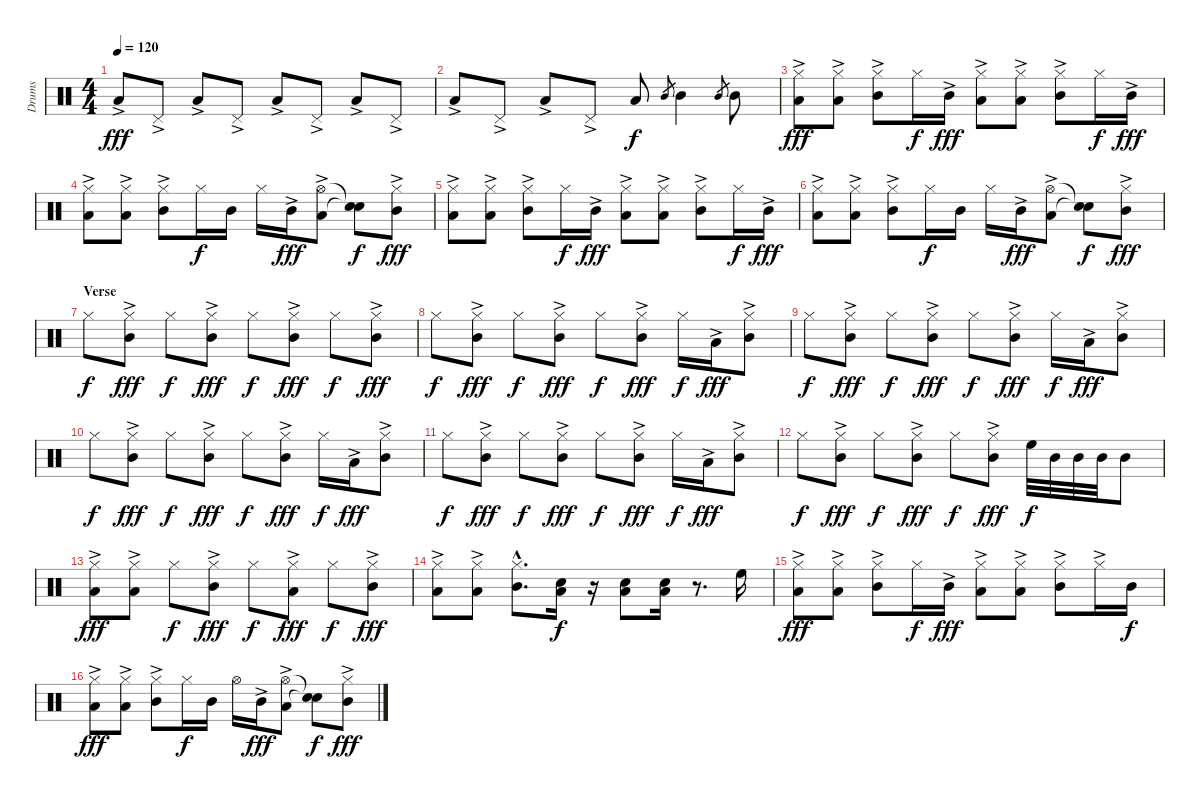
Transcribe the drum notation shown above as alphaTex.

\track ("Drums" "Drums") {instrument percussion}
\staff {score}
\articulation defaults
\ts (4 4)
\tempo 120
\clef neutral
\ks c "Low Floor Tom (hit)"{ac}.8{dy fff} "Pedal Hi-Hat (hit)"{ac}.8 "Low Floor Tom (hit)"{ac}.8 "Pedal Hi-Hat (hit)"{ac}.8 "Low Floor Tom (hit)"{ac}.8 "Pedal Hi-Hat (hit)"{ac}.8 "Low Floor Tom (hit)"{ac}.8 "Pedal Hi-Hat (hit)"{ac}.8
|
"Low Floor Tom (hit)"{ac}.8 "Pedal Hi-Hat (hit)"{ac}.8 "Low Floor Tom (hit)"{ac}.8 "Pedal Hi-Hat (hit)"{ac}.8 "Low Floor Tom (hit)".8{dy f} "Mid Tom (hit)".8{gr} "Mid Tom (hit)".4 "Mid Tom (hit)".8{gr} "Mid Tom (hit)".8 |
("Hi-Hat (closed)"{ac} "Low Floor Tom (hit)").8{dy fff} ("Hi-Hat (closed)"{ac} "Low Floor Tom (hit)").8 ("Hi-Hat (closed)"{ac} "Mid Tom (hit)"{ac}).8 "Hi-Hat (closed)".16{dy f} "Mid Tom (hit)"{ac}.16{dy fff} ("Hi-Hat (closed)"{ac} "Low Floor Tom (hit)").8 ("Hi-Hat (closed)"{ac} "Low Floor Tom (hit)").8 ("Hi-Hat (closed)"{ac} "Mid Tom (hit)").8 "Hi-Hat (closed)".16{dy f} "Mid Tom (hit)"{ac}.16{dy fff} |
("Hi-Hat (closed)"{ac} "Low Floor Tom (hit)").8 ("Hi-Hat (closed)"{ac} "Low Floor Tom (hit)").8 ("Hi-Hat (closed)"{ac} "Mid Tom (hit)").8 "Hi-Hat (closed)".16{dy f} "Mid Tom (hit)".16 "Hi-Hat (closed)".16 "Mid Tom (hit)"{ac}.16{dy fff} ("Hi-Hat (open)"{ac} "Low Floor Tom (hit)").8 ("Snare (hit)"{t} "Snare (hit)"{t}).8{dy f} ("Hi-Hat (closed)"{ac} "Mid Tom (hit)").8{dy fff} |
("Hi-Hat (closed)"{ac} "Low Floor Tom (hit)").8 ("Hi-Hat (closed)"{ac} "Low Floor Tom (hit)").8 ("Hi-Hat (closed)"{ac} "Mid Tom (hit)").8 "Hi-Hat (closed)".16{dy f} "Mid Tom (hit)"{ac}.16{dy fff} ("Hi-Hat (closed)"{ac} "Low Floor Tom (hit)").8 ("Hi-Hat (closed)"{ac} "Low Floor Tom (hit)").8 ("Hi-Hat (closed)"{ac} "Mid Tom (hit)").8 "Hi-Hat (closed)".16{dy f} "Mid Tom (hit)"{ac}.16{dy fff} |
("Hi-Hat (closed)"{ac} "Low Floor Tom (hit)").8 ("Hi-Hat (closed)"{ac} "Low Floor Tom (hit)").8 ("Hi-Hat (closed)"{ac} "Mid Tom (hit)").8 "Hi-Hat (closed)".16{dy f} "Mid Tom (hit)".16 "Hi-Hat (closed)".16 "Mid Tom (hit)"{ac}.16{dy fff} ("Hi-Hat (open)"{ac} "Low Floor Tom (hit)").8 ("Snare (hit)"{t} "Snare (hit)"{t}).8{dy f} ("Hi-Hat (closed)"{ac} "Mid Tom (hit)").8{dy fff} |
\section ("" "Verse")
"Hi-Hat (closed)".8{dy f} ("Hi-Hat (closed)"{ac} "Mid Tom (hit)").8{dy fff} "Hi-Hat (closed)".8{dy f} ("Hi-Hat (closed)"{ac} "Mid Tom (hit)").8{dy fff} "Hi-Hat (closed)".8{dy f} ("Hi-Hat (closed)"{ac} "Mid Tom (hit)").8{dy fff} "Hi-Hat (closed)".8{dy f} ("Hi-Hat (closed)"{ac} "Mid Tom (hit)").8{dy fff} |
"Hi-Hat (closed)".8{dy f} ("Hi-Hat (closed)"{ac} "Mid Tom (hit)").8{dy fff} "Hi-Hat (closed)".8{dy f} ("Hi-Hat (closed)"{ac} "Mid Tom (hit)").8{dy fff} "Hi-Hat (closed)".8{dy f} ("Hi-Hat (closed)"{ac} "Mid Tom (hit)").8{dy fff} "Hi-Hat (closed)".16{dy f} "Low Floor Tom (hit)"{ac}.16{dy fff} ("Hi-Hat (closed)"{ac} "Mid Tom (hit)").8 |
"Hi-Hat (closed)".8{dy f} ("Hi-Hat (closed)"{ac} "Mid Tom (hit)").8{dy fff} "Hi-Hat (closed)".8{dy f} ("Hi-Hat (closed)"{ac} "Mid Tom (hit)").8{dy fff} "Hi-Hat (closed)".8{dy f} ("Hi-Hat (closed)"{ac} "Mid Tom (hit)").8{dy fff} "Hi-Hat (closed)".16{dy f} "Low Floor Tom (hit)"{ac}.16{dy fff} ("Hi-Hat (closed)"{ac} "Mid Tom (hit)").8 |
"Hi-Hat (closed)".8{dy f} ("Hi-Hat (closed)"{ac} "Mid Tom (hit)").8{dy fff} "Hi-Hat (closed)".8{dy f} ("Hi-Hat (closed)"{ac} "Mid Tom (hit)").8{dy fff} "Hi-Hat (closed)".8{dy f} ("Hi-Hat (closed)"{ac} "Mid Tom (hit)").8{dy fff} "Hi-Hat (closed)".16{dy f} "Low Floor Tom (hit)"{ac}.16{dy fff} ("Hi-Hat (closed)"{ac} "Mid Tom (hit)").8 |
"Hi-Hat (closed)".8{dy f} ("Hi-Hat (closed)"{ac} "Mid Tom (hit)").8{dy fff} "Hi-Hat (closed)".8{dy f} ("Hi-Hat (closed)"{ac} "Mid Tom (hit)").8{dy fff} "Hi-Hat (closed)".8{dy f} ("Hi-Hat (closed)"{ac} "Mid Tom (hit)").8{dy fff} "Hi-Hat (closed)".16{dy f} "Low Floor Tom (hit)"{ac}.16{dy fff} ("Hi-Hat (closed)"{ac} "Mid Tom (hit)").8 |
"Hi-Hat (closed)".8{dy f} ("Hi-Hat (closed)"{ac} "Mid Tom (hit)").8{dy fff} "Hi-Hat (closed)".8{dy f} ("Hi-Hat (closed)"{ac} "Mid Tom (hit)").8{dy fff} "Hi-Hat (closed)".8{dy f} ("Hi-Hat (closed)"{ac} "Mid Tom (hit)").8{dy fff} "High Floor Tom (hit)".32{dy f} "Mid Tom (hit)".32 "Mid Tom (hit)".32 "Mid Tom (hit)".32 "Mid Tom (hit)".8 |
("Hi-Hat (closed)"{ac} "Low Floor Tom (hit)").8{dy fff} ("Hi-Hat (closed)"{ac} "Low Floor Tom (hit)").8 "Hi-Hat (closed)".8{dy f} ("Hi-Hat (closed)"{ac} "Mid Tom (hit)").8{dy fff} "Hi-Hat (closed)".8{dy f} ("Hi-Hat (closed)"{ac} "Low Floor Tom (hit)").8{dy fff} "Hi-Hat (closed)".8{dy f} ("Hi-Hat (closed)"{ac} "Mid Tom (hit)").8{dy fff} |
("Hi-Hat (closed)"{ac} "Low Floor Tom (hit)").8 ("Hi-Hat (closed)"{ac} "Low Floor Tom (hit)").8 ("Hi-Hat (closed)"{hac} "Mid Tom (hit)"{hac}).8{d} ("Low Tom (hit)" "Snare (hit) 2").16{dy f} r.16 ("Low Tom (hit)" "Snare (hit) 2").8 ("Low Tom (hit)" "Snare (hit) 2").16 r.8{d} "High Floor Tom (hit)".16 |
("Hi-Hat (closed)"{ac} "Low Floor Tom (hit)").8{dy fff} ("Hi-Hat (closed)"{ac} "Low Floor Tom (hit)").8 ("Hi-Hat (closed)"{ac} "Mid Tom (hit)").8 "Hi-Hat (closed)".16{dy f} "Mid Tom (hit)"{ac}.16{dy fff} ("Hi-Hat (closed)"{ac} "Low Floor Tom (hit)").8 ("Hi-Hat (closed)"{ac} "Low Floor Tom (hit)").8 ("Hi-Hat (closed)"{ac} "Mid Tom (hit)").8 "Hi-Hat (closed)"{ac}.16 "Mid Tom (hit)".16{dy f} |
("Hi-Hat (closed)"{ac} "Low Floor Tom (hit)").8{dy fff} ("Hi-Hat (closed)"{ac} "Low Floor Tom (hit)").8 ("Hi-Hat (closed)"{ac} "Mid Tom (hit)").8 "Hi-Hat (closed)".16{dy f} "Mid Tom (hit)".16 "Hi-Hat (open)".16 "Mid Tom (hit)"{ac}.16{dy fff} ("Hi-Hat (open)"{ac} "Low Floor Tom (hit)").8 ("Snare (hit)"{t} "Snare (hit)"{t}).8{dy f} ("Hi-Hat (closed)"{ac} "Mid Tom (hit)").8{dy fff}
